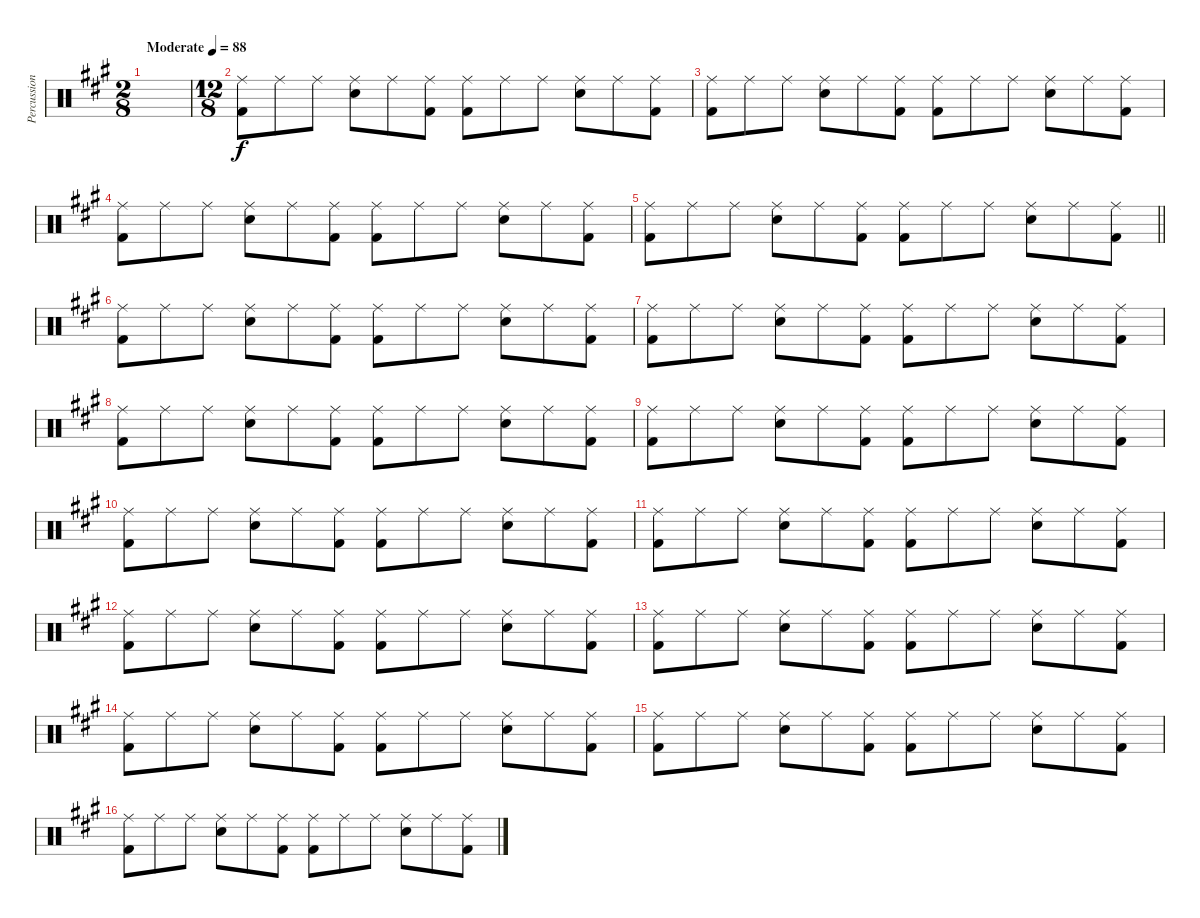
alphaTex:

\track ("Percussion" "Percussion") {instrument percussion}
\staff {score}
\articulation defaults
\ts (2 8)
\tempo (88 "Moderate")
\clef neutral
\ks a
|
\ts (12 8)
("Ride (middle)" "Kick (hit) 2").8 "Ride (middle)".8 "Ride (middle)".8 ("Ride (middle)" "Snare (hit) 2").8 "Ride (middle)".8 ("Ride (middle)" "Kick (hit) 2").8 ("Ride (middle)" "Kick (hit) 2").8 "Ride (middle)".8 "Ride (middle)".8 ("Ride (middle)" "Snare (hit) 2").8 "Ride (middle)".8 ("Ride (middle)" "Kick (hit) 2").8 |
("Ride (middle)" "Kick (hit) 2").8 "Ride (middle)".8 "Ride (middle)".8 ("Ride (middle)" "Snare (hit) 2").8 "Ride (middle)".8 ("Ride (middle)" "Kick (hit) 2").8 ("Ride (middle)" "Kick (hit) 2").8 "Ride (middle)".8 "Ride (middle)".8 ("Ride (middle)" "Snare (hit) 2").8 "Ride (middle)".8 ("Ride (middle)" "Kick (hit) 2").8 |
("Ride (middle)" "Kick (hit) 2").8 "Ride (middle)".8 "Ride (middle)".8 ("Ride (middle)" "Snare (hit) 2").8 "Ride (middle)".8 ("Ride (middle)" "Kick (hit) 2").8 ("Ride (middle)" "Kick (hit) 2").8 "Ride (middle)".8 "Ride (middle)".8 ("Ride (middle)" "Snare (hit) 2").8 "Ride (middle)".8 ("Ride (middle)" "Kick (hit) 2").8 |
\barLineRight lightlight
("Ride (middle)" "Kick (hit) 2").8 "Ride (middle)".8 "Ride (middle)".8 ("Ride (middle)" "Snare (hit) 2").8 "Ride (middle)".8 ("Ride (middle)" "Kick (hit) 2").8 ("Ride (middle)" "Kick (hit) 2").8 "Ride (middle)".8 "Ride (middle)".8 ("Ride (middle)" "Snare (hit) 2").8 "Ride (middle)".8 ("Ride (middle)" "Kick (hit) 2").8 |
("Ride (middle)" "Kick (hit) 2").8 "Ride (middle)".8 "Ride (middle)".8 ("Ride (middle)" "Snare (hit) 2").8 "Ride (middle)".8 ("Ride (middle)" "Kick (hit) 2").8 ("Ride (middle)" "Kick (hit) 2").8 "Ride (middle)".8 "Ride (middle)".8 ("Ride (middle)" "Snare (hit) 2").8 "Ride (middle)".8 ("Ride (middle)" "Kick (hit) 2").8 |
("Ride (middle)" "Kick (hit) 2").8 "Ride (middle)".8 "Ride (middle)".8 ("Ride (middle)" "Snare (hit) 2").8 "Ride (middle)".8 ("Ride (middle)" "Kick (hit) 2").8 ("Ride (middle)" "Kick (hit) 2").8 "Ride (middle)".8 "Ride (middle)".8 ("Ride (middle)" "Snare (hit) 2").8 "Ride (middle)".8 ("Ride (middle)" "Kick (hit) 2").8 |
("Ride (middle)" "Kick (hit) 2").8 "Ride (middle)".8 "Ride (middle)".8 ("Ride (middle)" "Snare (hit) 2").8 "Ride (middle)".8 ("Ride (middle)" "Kick (hit) 2").8 ("Ride (middle)" "Kick (hit) 2").8 "Ride (middle)".8 "Ride (middle)".8 ("Ride (middle)" "Snare (hit) 2").8 "Ride (middle)".8 ("Ride (middle)" "Kick (hit) 2").8 |
("Ride (middle)" "Kick (hit) 2").8 "Ride (middle)".8 "Ride (middle)".8 ("Ride (middle)" "Snare (hit) 2").8 "Ride (middle)".8 ("Ride (middle)" "Kick (hit) 2").8 ("Ride (middle)" "Kick (hit) 2").8 "Ride (middle)".8 "Ride (middle)".8 ("Ride (middle)" "Snare (hit) 2").8 "Ride (middle)".8 ("Ride (middle)" "Kick (hit) 2").8 |
("Ride (middle)" "Kick (hit) 2").8 "Ride (middle)".8 "Ride (middle)".8 ("Ride (middle)" "Snare (hit) 2").8 "Ride (middle)".8 ("Ride (middle)" "Kick (hit) 2").8 ("Ride (middle)" "Kick (hit) 2").8 "Ride (middle)".8 "Ride (middle)".8 ("Ride (middle)" "Snare (hit) 2").8 "Ride (middle)".8 ("Ride (middle)" "Kick (hit) 2").8 |
("Ride (middle)" "Kick (hit) 2").8 "Ride (middle)".8 "Ride (middle)".8 ("Ride (middle)" "Snare (hit) 2").8 "Ride (middle)".8 ("Ride (middle)" "Kick (hit) 2").8 ("Ride (middle)" "Kick (hit) 2").8 "Ride (middle)".8 "Ride (middle)".8 ("Ride (middle)" "Snare (hit) 2").8 "Ride (middle)".8 ("Ride (middle)" "Kick (hit) 2").8 |
("Ride (middle)" "Kick (hit) 2").8 "Ride (middle)".8 "Ride (middle)".8 ("Ride (middle)" "Snare (hit) 2").8 "Ride (middle)".8 ("Ride (middle)" "Kick (hit) 2").8 ("Ride (middle)" "Kick (hit) 2").8 "Ride (middle)".8 "Ride (middle)".8 ("Ride (middle)" "Snare (hit) 2").8 "Ride (middle)".8 ("Ride (middle)" "Kick (hit) 2").8 |
("Ride (middle)" "Kick (hit) 2").8 "Ride (middle)".8 "Ride (middle)".8 ("Ride (middle)" "Snare (hit) 2").8 "Ride (middle)".8 ("Ride (middle)" "Kick (hit) 2").8 ("Ride (middle)" "Kick (hit) 2").8 "Ride (middle)".8 "Ride (middle)".8 ("Ride (middle)" "Snare (hit) 2").8 "Ride (middle)".8 ("Ride (middle)" "Kick (hit) 2").8 |
("Ride (middle)" "Kick (hit) 2").8 "Ride (middle)".8 "Ride (middle)".8 ("Ride (middle)" "Snare (hit) 2").8 "Ride (middle)".8 ("Ride (middle)" "Kick (hit) 2").8 ("Ride (middle)" "Kick (hit) 2").8 "Ride (middle)".8 "Ride (middle)".8 ("Ride (middle)" "Snare (hit) 2").8 "Ride (middle)".8 ("Ride (middle)" "Kick (hit) 2").8 |
("Ride (middle)" "Kick (hit) 2").8 "Ride (middle)".8 "Ride (middle)".8 ("Ride (middle)" "Snare (hit) 2").8 "Ride (middle)".8 ("Ride (middle)" "Kick (hit) 2").8 ("Ride (middle)" "Kick (hit) 2").8 "Ride (middle)".8 "Ride (middle)".8 ("Ride (middle)" "Snare (hit) 2").8 "Ride (middle)".8 ("Ride (middle)" "Kick (hit) 2").8 |
("Ride (middle)" "Kick (hit) 2").8 "Ride (middle)".8 "Ride (middle)".8 ("Ride (middle)" "Snare (hit) 2").8 "Ride (middle)".8 ("Ride (middle)" "Kick (hit) 2").8 ("Ride (middle)" "Kick (hit) 2").8 "Ride (middle)".8 "Ride (middle)".8 ("Ride (middle)" "Snare (hit) 2").8 "Ride (middle)".8 ("Ride (middle)" "Kick (hit) 2").8
